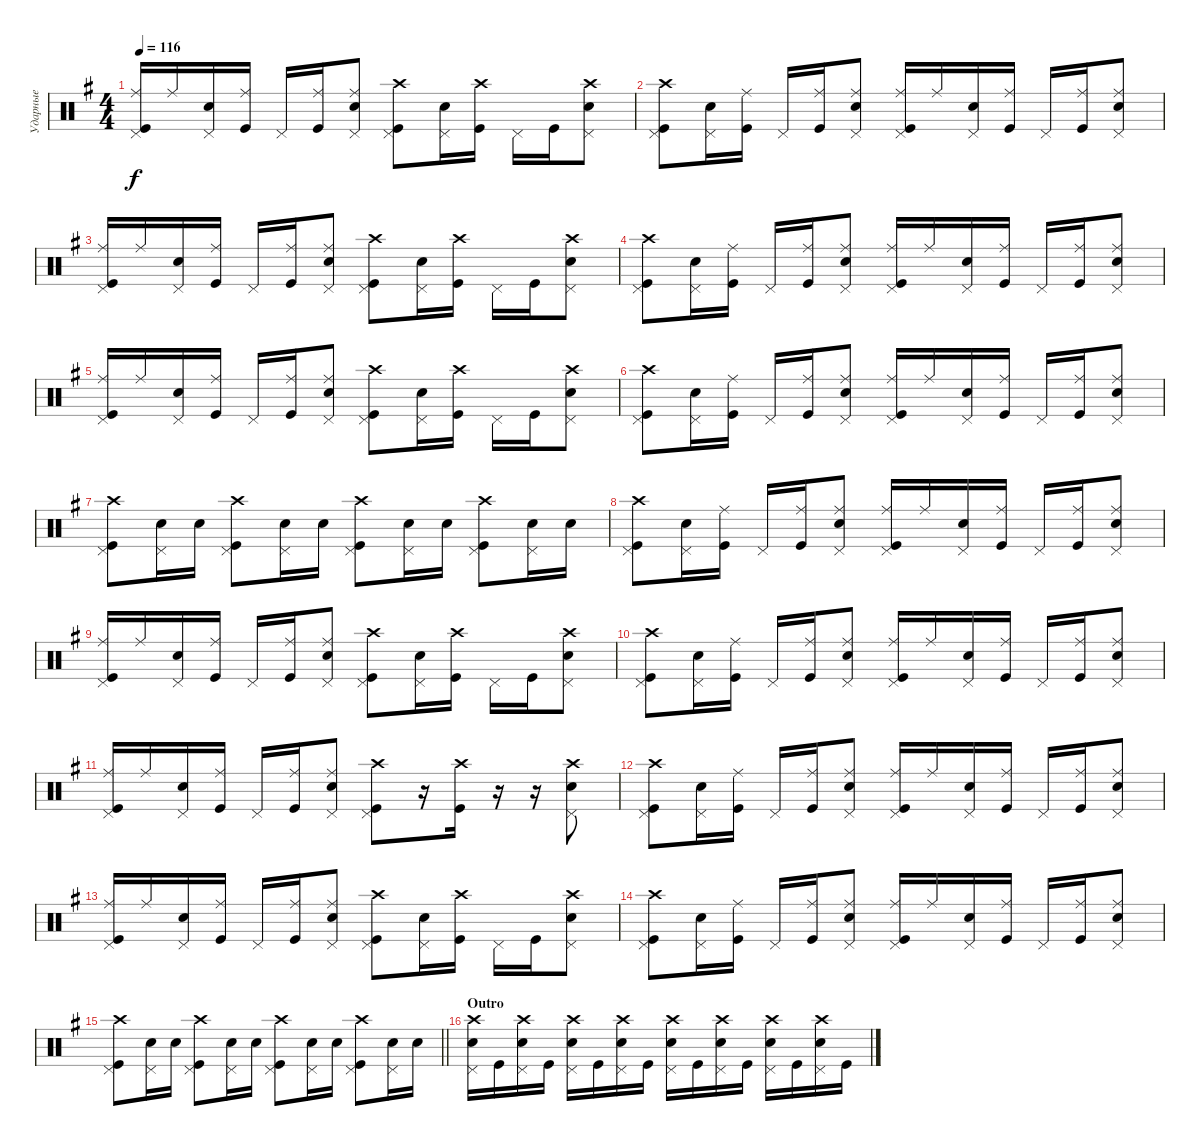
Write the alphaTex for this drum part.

\track ("Ударные" "Ударные") {instrument percussion}
\staff {score}
\articulation defaults
\ts (4 4)
\tempo 116
\clef neutral
\ks eminor
("Kick (hit)" "Ride (middle)" "Pedal Hi-Hat (hit)").16{dy f} "Ride (middle)".16 ("Snare (hit) 2" "Pedal Hi-Hat (hit)").16 ("Kick (hit)" "Ride (middle)").16 "Pedal Hi-Hat (hit)".16 ("Ride (middle)" "Kick (hit)").16 ("Snare (hit) 2" "Ride (middle)" "Pedal Hi-Hat (hit)").8 ("Kick (hit)" "Crash high (hit)" "Pedal Hi-Hat (hit)").8 ("Snare (hit) 2" "Pedal Hi-Hat (hit)").16 ("Kick (hit)" "Crash high (hit)").16 "Pedal Hi-Hat (hit)".16 "Kick (hit)".16 ("Crash high (hit)" "Snare (hit) 2" "Pedal Hi-Hat (hit)").8 |
("Kick (hit)" "Crash high (hit)" "Pedal Hi-Hat (hit)").8 ("Snare (hit) 2" "Pedal Hi-Hat (hit)").16 ("Kick (hit)" "Ride (middle)").16 "Pedal Hi-Hat (hit)".16 ("Ride (middle)" "Kick (hit)").16 ("Snare (hit) 2" "Ride (middle)" "Pedal Hi-Hat (hit)").8 ("Kick (hit)" "Ride (middle)" "Pedal Hi-Hat (hit)").16 "Ride (middle)".16 ("Snare (hit) 2" "Pedal Hi-Hat (hit)").16 ("Kick (hit)" "Ride (middle)").16 "Pedal Hi-Hat (hit)".16 ("Ride (middle)" "Kick (hit)").16 ("Ride (middle)" "Snare (hit) 2" "Pedal Hi-Hat (hit)").8 |
("Kick (hit)" "Ride (middle)" "Pedal Hi-Hat (hit)").16 "Ride (middle)".16 ("Snare (hit) 2" "Pedal Hi-Hat (hit)").16 ("Kick (hit)" "Ride (middle)").16 "Pedal Hi-Hat (hit)".16 ("Ride (middle)" "Kick (hit)").16 ("Snare (hit) 2" "Ride (middle)" "Pedal Hi-Hat (hit)").8 ("Kick (hit)" "Crash high (hit)" "Pedal Hi-Hat (hit)").8 ("Snare (hit) 2" "Pedal Hi-Hat (hit)").16 ("Kick (hit)" "Crash high (hit)").16 "Pedal Hi-Hat (hit)".16 "Kick (hit)".16 ("Crash high (hit)" "Snare (hit) 2" "Pedal Hi-Hat (hit)").8 |
("Kick (hit)" "Crash high (hit)" "Pedal Hi-Hat (hit)").8 ("Snare (hit) 2" "Pedal Hi-Hat (hit)").16 ("Kick (hit)" "Ride (middle)").16 "Pedal Hi-Hat (hit)".16 ("Ride (middle)" "Kick (hit)").16 ("Snare (hit) 2" "Ride (middle)" "Pedal Hi-Hat (hit)").8 ("Kick (hit)" "Ride (middle)" "Pedal Hi-Hat (hit)").16 "Ride (middle)".16 ("Snare (hit) 2" "Pedal Hi-Hat (hit)").16 ("Kick (hit)" "Ride (middle)").16 "Pedal Hi-Hat (hit)".16 ("Ride (middle)" "Kick (hit)").16 ("Ride (middle)" "Snare (hit) 2" "Pedal Hi-Hat (hit)").8 |
("Kick (hit)" "Ride (middle)" "Pedal Hi-Hat (hit)").16 "Ride (middle)".16 ("Snare (hit) 2" "Pedal Hi-Hat (hit)").16 ("Kick (hit)" "Ride (middle)").16 "Pedal Hi-Hat (hit)".16 ("Ride (middle)" "Kick (hit)").16 ("Snare (hit) 2" "Ride (middle)" "Pedal Hi-Hat (hit)").8 ("Kick (hit)" "Crash high (hit)" "Pedal Hi-Hat (hit)").8 ("Snare (hit) 2" "Pedal Hi-Hat (hit)").16 ("Kick (hit)" "Crash high (hit)").16 "Pedal Hi-Hat (hit)".16 "Kick (hit)".16 ("Crash high (hit)" "Snare (hit) 2" "Pedal Hi-Hat (hit)").8 |
("Kick (hit)" "Crash high (hit)" "Pedal Hi-Hat (hit)").8 ("Snare (hit) 2" "Pedal Hi-Hat (hit)").16 ("Kick (hit)" "Ride (middle)").16 "Pedal Hi-Hat (hit)".16 ("Ride (middle)" "Kick (hit)").16 ("Snare (hit) 2" "Ride (middle)" "Pedal Hi-Hat (hit)").8 ("Kick (hit)" "Ride (middle)" "Pedal Hi-Hat (hit)").16 "Ride (middle)".16 ("Snare (hit) 2" "Pedal Hi-Hat (hit)").16 ("Kick (hit)" "Ride (middle)").16 "Pedal Hi-Hat (hit)".16 ("Ride (middle)" "Kick (hit)").16 ("Ride (middle)" "Snare (hit) 2" "Pedal Hi-Hat (hit)").8 |
("Kick (hit)" "Crash high (hit)" "Pedal Hi-Hat (hit)").8 ("Snare (hit) 2" "Pedal Hi-Hat (hit)").16 "Snare (hit) 2".16 ("Kick (hit)" "Crash high (hit)" "Pedal Hi-Hat (hit)").8 ("Snare (hit) 2" "Pedal Hi-Hat (hit)").16 "Snare (hit) 2".16 ("Kick (hit)" "Crash high (hit)" "Pedal Hi-Hat (hit)").8 ("Snare (hit) 2" "Pedal Hi-Hat (hit)").16 "Snare (hit) 2".16 ("Kick (hit)" "Crash high (hit)" "Pedal Hi-Hat (hit)").8 ("Snare (hit) 2" "Pedal Hi-Hat (hit)").16 "Snare (hit) 2".16 |
("Kick (hit)" "Crash high (hit)" "Pedal Hi-Hat (hit)").8 ("Snare (hit) 2" "Pedal Hi-Hat (hit)").16 ("Kick (hit)" "Ride (middle)").16 "Pedal Hi-Hat (hit)".16 ("Ride (middle)" "Kick (hit)").16 ("Snare (hit) 2" "Ride (middle)" "Pedal Hi-Hat (hit)").8 ("Kick (hit)" "Ride (middle)" "Pedal Hi-Hat (hit)").16 "Ride (middle)".16 ("Snare (hit) 2" "Pedal Hi-Hat (hit)").16 ("Kick (hit)" "Ride (middle)").16 "Pedal Hi-Hat (hit)".16 ("Ride (middle)" "Kick (hit)").16 ("Ride (middle)" "Snare (hit) 2" "Pedal Hi-Hat (hit)").8 |
("Kick (hit)" "Ride (middle)" "Pedal Hi-Hat (hit)").16 "Ride (middle)".16 ("Snare (hit) 2" "Pedal Hi-Hat (hit)").16 ("Kick (hit)" "Ride (middle)").16 "Pedal Hi-Hat (hit)".16 ("Ride (middle)" "Kick (hit)").16 ("Snare (hit) 2" "Ride (middle)" "Pedal Hi-Hat (hit)").8 ("Kick (hit)" "Crash high (hit)" "Pedal Hi-Hat (hit)").8 ("Snare (hit) 2" "Pedal Hi-Hat (hit)").16 ("Kick (hit)" "Crash high (hit)").16 "Pedal Hi-Hat (hit)".16 "Kick (hit)".16 ("Crash high (hit)" "Snare (hit) 2" "Pedal Hi-Hat (hit)").8 |
("Kick (hit)" "Crash high (hit)" "Pedal Hi-Hat (hit)").8 ("Snare (hit) 2" "Pedal Hi-Hat (hit)").16 ("Kick (hit)" "Ride (middle)").16 "Pedal Hi-Hat (hit)".16 ("Ride (middle)" "Kick (hit)").16 ("Snare (hit) 2" "Ride (middle)" "Pedal Hi-Hat (hit)").8 ("Kick (hit)" "Ride (middle)" "Pedal Hi-Hat (hit)").16 "Ride (middle)".16 ("Snare (hit) 2" "Pedal Hi-Hat (hit)").16 ("Kick (hit)" "Ride (middle)").16 "Pedal Hi-Hat (hit)".16 ("Ride (middle)" "Kick (hit)").16 ("Ride (middle)" "Snare (hit) 2" "Pedal Hi-Hat (hit)").8 |
("Kick (hit)" "Ride (middle)" "Pedal Hi-Hat (hit)").16 "Ride (middle)".16 ("Snare (hit) 2" "Pedal Hi-Hat (hit)").16 ("Kick (hit)" "Ride (middle)").16 "Pedal Hi-Hat (hit)".16 ("Ride (middle)" "Kick (hit)").16 ("Snare (hit) 2" "Ride (middle)" "Pedal Hi-Hat (hit)").8 ("Kick (hit)" "Crash high (hit)" "Pedal Hi-Hat (hit)").8 r.16 ("Kick (hit)" "Crash high (hit)").16 r.16 r.16 ("Crash high (hit)" "Snare (hit) 2" "Pedal Hi-Hat (hit)").8 |
("Kick (hit)" "Crash high (hit)" "Pedal Hi-Hat (hit)").8 ("Snare (hit) 2" "Pedal Hi-Hat (hit)").16 ("Kick (hit)" "Ride (middle)").16 "Pedal Hi-Hat (hit)".16 ("Ride (middle)" "Kick (hit)").16 ("Snare (hit) 2" "Ride (middle)" "Pedal Hi-Hat (hit)").8 ("Kick (hit)" "Ride (middle)" "Pedal Hi-Hat (hit)").16 "Ride (middle)".16 ("Snare (hit) 2" "Pedal Hi-Hat (hit)").16 ("Kick (hit)" "Ride (middle)").16 "Pedal Hi-Hat (hit)".16 ("Ride (middle)" "Kick (hit)").16 ("Ride (middle)" "Snare (hit) 2" "Pedal Hi-Hat (hit)").8 |
("Kick (hit)" "Ride (middle)" "Pedal Hi-Hat (hit)").16 "Ride (middle)".16 ("Snare (hit) 2" "Pedal Hi-Hat (hit)").16 ("Kick (hit)" "Ride (middle)").16 "Pedal Hi-Hat (hit)".16 ("Ride (middle)" "Kick (hit)").16 ("Snare (hit) 2" "Ride (middle)" "Pedal Hi-Hat (hit)").8 ("Kick (hit)" "Crash high (hit)" "Pedal Hi-Hat (hit)").8 ("Snare (hit) 2" "Pedal Hi-Hat (hit)").16 ("Kick (hit)" "Crash high (hit)").16 "Pedal Hi-Hat (hit)".16 "Kick (hit)".16 ("Crash high (hit)" "Snare (hit) 2" "Pedal Hi-Hat (hit)").8 |
("Kick (hit)" "Crash high (hit)" "Pedal Hi-Hat (hit)").8 ("Snare (hit) 2" "Pedal Hi-Hat (hit)").16 ("Kick (hit)" "Ride (middle)").16 "Pedal Hi-Hat (hit)".16 ("Ride (middle)" "Kick (hit)").16 ("Snare (hit) 2" "Ride (middle)" "Pedal Hi-Hat (hit)").8 ("Kick (hit)" "Ride (middle)" "Pedal Hi-Hat (hit)").16 "Ride (middle)".16 ("Snare (hit) 2" "Pedal Hi-Hat (hit)").16 ("Kick (hit)" "Ride (middle)").16 "Pedal Hi-Hat (hit)".16 ("Ride (middle)" "Kick (hit)").16 ("Ride (middle)" "Snare (hit) 2" "Pedal Hi-Hat (hit)").8 |
\barLineRight lightlight
("Kick (hit)" "Crash high (hit)" "Pedal Hi-Hat (hit)").8 ("Snare (hit) 2" "Pedal Hi-Hat (hit)").16 "Snare (hit) 2".16 ("Kick (hit)" "Crash high (hit)" "Pedal Hi-Hat (hit)").8 ("Snare (hit) 2" "Pedal Hi-Hat (hit)").16 "Snare (hit) 2".16 ("Kick (hit)" "Crash high (hit)" "Pedal Hi-Hat (hit)").8 ("Snare (hit) 2" "Pedal Hi-Hat (hit)").16 "Snare (hit) 2".16 ("Kick (hit)" "Crash high (hit)" "Pedal Hi-Hat (hit)").8 ("Snare (hit) 2" "Pedal Hi-Hat (hit)").16 "Snare (hit) 2".16 |
\section ("" "Outro")
("Pedal Hi-Hat (hit)" "Snare (hit) 2" "Crash high (hit)").16 "Kick (hit)".16 ("Pedal Hi-Hat (hit)" "Snare (hit) 2" "Crash high (hit)").16 "Kick (hit)".16 ("Pedal Hi-Hat (hit)" "Snare (hit) 2" "Crash high (hit)").16 "Kick (hit)".16 ("Pedal Hi-Hat (hit)" "Snare (hit) 2" "Crash high (hit)").16 "Kick (hit)".16 ("Pedal Hi-Hat (hit)" "Snare (hit) 2" "Crash high (hit)").16 "Kick (hit)".16 ("Pedal Hi-Hat (hit)" "Snare (hit) 2" "Crash high (hit)").16 "Kick (hit)".16 ("Pedal Hi-Hat (hit)" "Snare (hit) 2" "Crash high (hit)").16 "Kick (hit)".16 ("Pedal Hi-Hat (hit)" "Snare (hit) 2" "Crash high (hit)").16 "Kick (hit)".16
